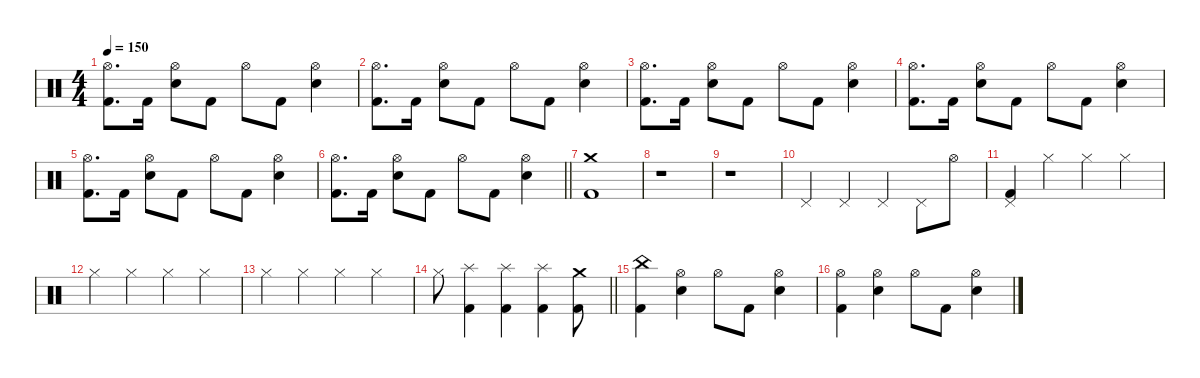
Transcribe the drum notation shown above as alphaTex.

\defaultSystemsLayout 4
\hideDynamics
\bracketExtendMode nobrackets
\singleTrackTrackNamePolicy hidden
\multiTrackTrackNamePolicy hidden
\firstSystemTrackNameMode fullname
\otherSystemsTrackNameOrientation horizontal
\track ("Percussions" "drm.") {defaultSystemsLayout 4 instrument percussion}
\staff {score}
\articulation defaults
\ts (4 4)
\tempo 150
\clef neutral
\ks c
("Hi-Hat (open)" "Kick (hit) 2").8{d dy ff beam Down} "Kick (hit) 2".16{dy fff beam Down} ("Hi-Hat (open)" "Snare (hit) 2").8{beam Down} "Kick (hit) 2".8{beam Down} "Hi-Hat (open)".8{dy f beam Down} "Kick (hit) 2".8{dy fff beam Down} ("Hi-Hat (open)" "Snare (hit) 2").4{beam Down} |
("Hi-Hat (open)" "Kick (hit) 2").8{d dy ff beam Down} "Kick (hit) 2".16{dy fff beam Down} ("Hi-Hat (open)" "Snare (hit) 2").8{beam Down} "Kick (hit) 2".8{beam Down} "Hi-Hat (open)".8{dy f beam Down} "Kick (hit) 2".8{dy fff beam Down} ("Hi-Hat (open)" "Snare (hit) 2").4{beam Down} |
("Hi-Hat (open)" "Kick (hit) 2").8{d dy ff beam Down} "Kick (hit) 2".16{dy fff beam Down} ("Hi-Hat (open)" "Snare (hit) 2").8{beam Down} "Kick (hit) 2".8{beam Down} "Hi-Hat (open)".8{dy f beam Down} "Kick (hit) 2".8{dy fff beam Down} ("Hi-Hat (open)" "Snare (hit) 2").4{beam Down} |
("Hi-Hat (open)" "Kick (hit) 2").8{d dy ff beam Down} "Kick (hit) 2".16{dy fff beam Down} ("Hi-Hat (open)" "Snare (hit) 2").8{beam Down} "Kick (hit) 2".8{beam Down} "Hi-Hat (open)".8{dy f beam Down} "Kick (hit) 2".8{dy fff beam Down} ("Hi-Hat (open)" "Snare (hit) 2").4{beam Down} |
("Hi-Hat (open)" "Kick (hit) 2").8{d dy ff beam Down} "Kick (hit) 2".16{dy fff beam Down} ("Hi-Hat (open)" "Snare (hit) 2").8{beam Down} "Kick (hit) 2".8{beam Down} "Hi-Hat (open)".8{dy f beam Down} "Kick (hit) 2".8{dy fff beam Down} ("Hi-Hat (open)" "Snare (hit) 2").4{beam Down} |
\barLineRight lightlight
("Hi-Hat (open)" "Kick (hit) 2").8{d dy ff beam Down} "Kick (hit) 2".16{dy fff beam Down} ("Hi-Hat (open)" "Snare (hit) 2").8{beam Down} "Kick (hit) 2".8{beam Down} "Hi-Hat (open)".8{dy f beam Down} "Kick (hit) 2".8{dy fff beam Down} ("Hi-Hat (open)" "Snare (hit) 2").4{beam Down} |
("Crash medium (hit)" "Kick (hit) 2").1{dy f beam Down} |
r.1{beam Down} |
r.1{beam Down} |
"Pedal Hi-Hat (hit)".4{dy mp beam Up} "Pedal Hi-Hat (hit)".4{beam Up} "Pedal Hi-Hat (hit)".4{beam Up} "Pedal Hi-Hat (hit)".8{beam Down} "Hi-Hat (open)".8{dy f beam Down} |
("Pedal Hi-Hat (hit)" "Kick (hit) 2").4{beam Up} "Hi-Hat (closed)".4{beam Down} "Hi-Hat (closed)".4{beam Down} "Hi-Hat (closed)".4{beam Down} |
"Hi-Hat (closed)".4{beam Down} "Hi-Hat (closed)".4{beam Down} "Hi-Hat (closed)".4{beam Down} "Hi-Hat (closed)".4{beam Down} |
"Hi-Hat (closed)".4{beam Down} "Hi-Hat (closed)".4{beam Down} "Hi-Hat (closed)".4{beam Down} "Hi-Hat (closed)".4{beam Down} |
\barLineRight lightlight "Hi-Hat (closed)".8{beam Down}
("Splash (hit)" "Kick (hit) 2").4{dy mp beam Down} ("Splash (hit)" "Kick (hit) 2").4{beam Down} ("Splash (hit)" "Kick (hit) 2").4{beam Down} ("Crash medium (hit)" "Kick (hit) 2").8{dy f beam Down} |
("China (hit)" "Kick (hit) 2").4{beam Down} ("Hi-Hat (open)" "Snare (hit) 2").4{beam Down} "Hi-Hat (open)".8{beam Down} "Kick (hit) 2".8{dy fff beam Down} ("Hi-Hat (open)" "Snare (hit) 2").4{dy f beam Down} |
("Hi-Hat (open)" "Kick (hit) 2").4{beam Down} ("Hi-Hat (open)" "Snare (hit) 2").4{beam Down} "Hi-Hat (open)".8{beam Down} "Kick (hit) 2".8{dy fff beam Down} ("Hi-Hat (open)" "Snare (hit) 2").4{dy f beam Down}
